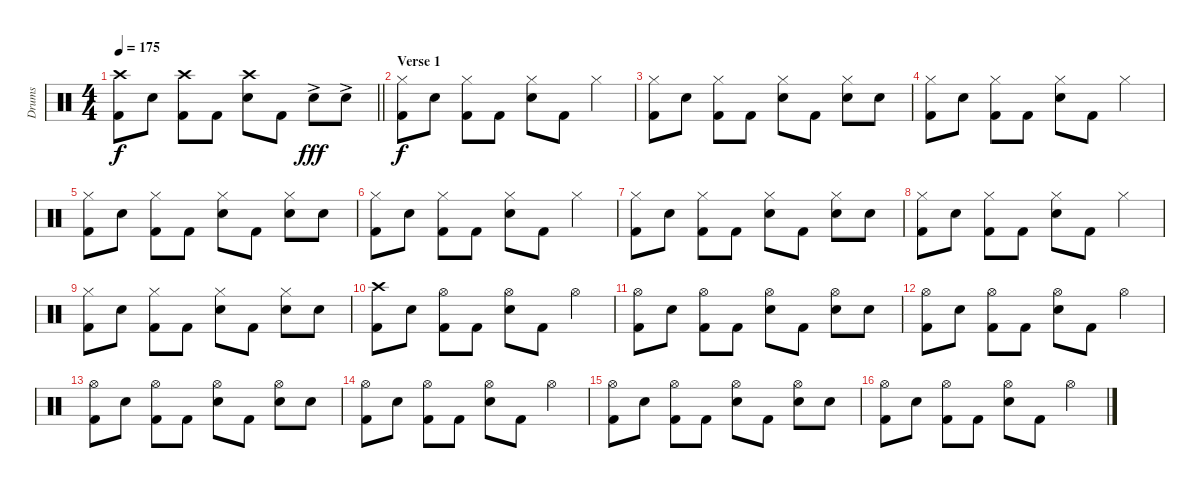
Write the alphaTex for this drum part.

\track ("Drums" "Drums") {instrument percussion}
\staff {score}
\articulation defaults
\ts (4 4)
\tempo 175
\clef neutral
\barLineRight lightlight
\ks c
("Crash high (hit)" "Kick (hit) 2").8{dy f} "Snare (hit) 2".8 ("Crash high (hit)" "Kick (hit) 2").8 "Kick (hit) 2".8 ("Crash high (hit)" "Snare (hit) 2").8 "Kick (hit) 2".8 "Snare (hit) 2"{ac}.8{dy fff} "Snare (hit) 2"{ac}.8 |
\section ("" "Verse 1")
("Hi-Hat (closed)" "Kick (hit) 2").8{dy f} "Snare (hit) 2".8 ("Hi-Hat (closed)" "Kick (hit) 2").8 "Kick (hit) 2".8 ("Hi-Hat (closed)" "Snare (hit) 2").8 "Kick (hit) 2".8 "Hi-Hat (closed)".4 |
("Hi-Hat (closed)" "Kick (hit) 2").8 "Snare (hit) 2".8 ("Hi-Hat (closed)" "Kick (hit) 2").8 "Kick (hit) 2".8 ("Hi-Hat (closed)" "Snare (hit) 2").8 "Kick (hit) 2".8 ("Hi-Hat (closed)" "Snare (hit) 2").8 "Snare (hit) 2".8 |
("Hi-Hat (closed)" "Kick (hit) 2").8 "Snare (hit) 2".8 ("Hi-Hat (closed)" "Kick (hit) 2").8 "Kick (hit) 2".8 ("Hi-Hat (closed)" "Snare (hit) 2").8 "Kick (hit) 2".8 "Hi-Hat (closed)".4 |
("Hi-Hat (closed)" "Kick (hit) 2").8 "Snare (hit) 2".8 ("Hi-Hat (closed)" "Kick (hit) 2").8 "Kick (hit) 2".8 ("Hi-Hat (closed)" "Snare (hit) 2").8 "Kick (hit) 2".8 ("Hi-Hat (closed)" "Snare (hit) 2").8 "Snare (hit) 2".8 |
("Hi-Hat (closed)" "Kick (hit) 2").8 "Snare (hit) 2".8 ("Hi-Hat (closed)" "Kick (hit) 2").8 "Kick (hit) 2".8 ("Hi-Hat (closed)" "Snare (hit) 2").8 "Kick (hit) 2".8 "Hi-Hat (closed)".4 |
("Hi-Hat (closed)" "Kick (hit) 2").8 "Snare (hit) 2".8 ("Hi-Hat (closed)" "Kick (hit) 2").8 "Kick (hit) 2".8 ("Hi-Hat (closed)" "Snare (hit) 2").8 "Kick (hit) 2".8 ("Hi-Hat (closed)" "Snare (hit) 2").8 "Snare (hit) 2".8 |
("Hi-Hat (closed)" "Kick (hit) 2").8 "Snare (hit) 2".8 ("Hi-Hat (closed)" "Kick (hit) 2").8 "Kick (hit) 2".8 ("Hi-Hat (closed)" "Snare (hit) 2").8 "Kick (hit) 2".8 "Hi-Hat (closed)".4 |
("Hi-Hat (closed)" "Kick (hit) 2").8 "Snare (hit) 2".8 ("Hi-Hat (closed)" "Kick (hit) 2").8 "Kick (hit) 2".8 ("Hi-Hat (closed)" "Snare (hit) 2").8 "Kick (hit) 2".8 ("Hi-Hat (closed)" "Snare (hit) 2").8 "Snare (hit) 2".8 |
\section ("" "")
("Crash high (hit)" "Kick (hit) 2").8 "Snare (hit) 2".8 ("Hi-Hat (open)" "Kick (hit) 2").8 "Kick (hit) 2".8 ("Hi-Hat (open)" "Snare (hit) 2").8 "Kick (hit) 2".8 "Hi-Hat (open)".4 |
\section ("" "")
("Hi-Hat (open)" "Kick (hit) 2").8 "Snare (hit) 2".8 ("Hi-Hat (open)" "Kick (hit) 2").8 "Kick (hit) 2".8 ("Hi-Hat (open)" "Snare (hit) 2").8 "Kick (hit) 2".8 ("Hi-Hat (open)" "Snare (hit) 2").8 "Snare (hit) 2".8 |
("Hi-Hat (open)" "Kick (hit) 2").8 "Snare (hit) 2".8 ("Hi-Hat (open)" "Kick (hit) 2").8 "Kick (hit) 2".8 ("Hi-Hat (open)" "Snare (hit) 2").8 "Kick (hit) 2".8 "Hi-Hat (open)".4 |
("Hi-Hat (open)" "Kick (hit) 2").8 "Snare (hit) 2".8 ("Hi-Hat (open)" "Kick (hit) 2").8 "Kick (hit) 2".8 ("Hi-Hat (open)" "Snare (hit) 2").8 "Kick (hit) 2".8 ("Hi-Hat (open)" "Snare (hit) 2").8 "Snare (hit) 2".8 |
("Hi-Hat (open)" "Kick (hit) 2").8 "Snare (hit) 2".8 ("Hi-Hat (open)" "Kick (hit) 2").8 "Kick (hit) 2".8 ("Hi-Hat (open)" "Snare (hit) 2").8 "Kick (hit) 2".8 "Hi-Hat (open)".4 |
("Hi-Hat (open)" "Kick (hit) 2").8 "Snare (hit) 2".8 ("Hi-Hat (open)" "Kick (hit) 2").8 "Kick (hit) 2".8 ("Hi-Hat (open)" "Snare (hit) 2").8 "Kick (hit) 2".8 ("Hi-Hat (open)" "Snare (hit) 2").8 "Snare (hit) 2".8 |
("Hi-Hat (open)" "Kick (hit) 2").8 "Snare (hit) 2".8 ("Hi-Hat (open)" "Kick (hit) 2").8 "Kick (hit) 2".8 ("Hi-Hat (open)" "Snare (hit) 2").8 "Kick (hit) 2".8 "Hi-Hat (open)".4
